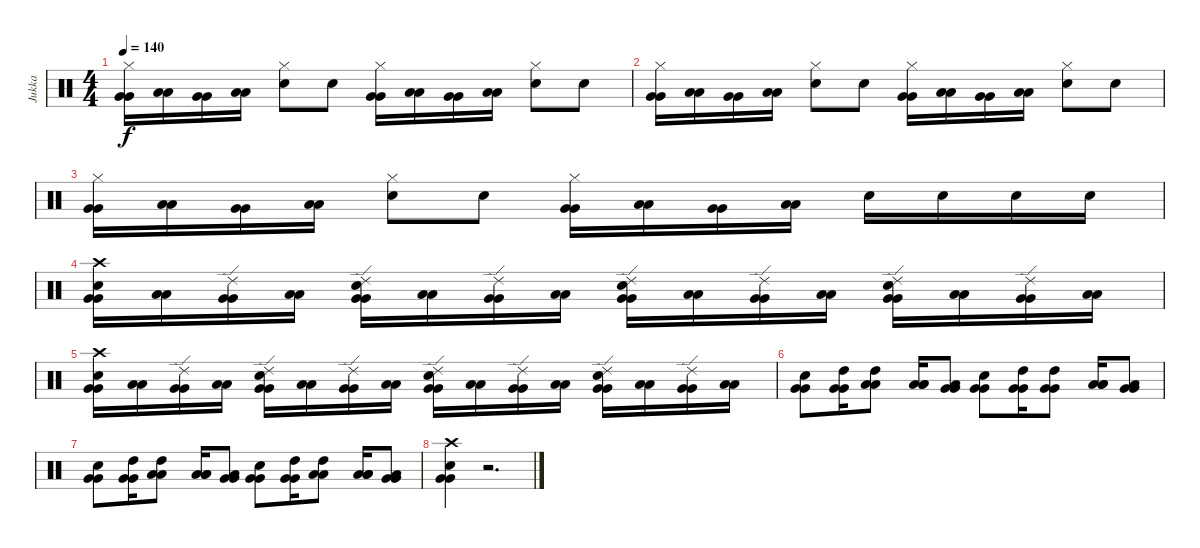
\track ("Jukka" "Jukka") {instrument percussion}
\staff {score}
\articulation defaults
\ts (4 4)
\tempo 140
\clef neutral
\ks c
("Hi-Hat (closed)" "Very Low Tom (hit)" "Very Low Tom (hit)").16{dy f} ("Low Floor Tom (hit)" "Low Floor Tom (hit)").16 ("Very Low Tom (hit)" "Very Low Tom (hit)").16 ("Low Floor Tom (hit)" "Low Floor Tom (hit)").16 ("Hi-Hat (closed)" "Electric Snare (hit)").8 "Electric Snare (hit)".8 ("Hi-Hat (closed)" "Very Low Tom (hit)" "Very Low Tom (hit)").16 ("Low Floor Tom (hit)" "Low Floor Tom (hit)").16 ("Very Low Tom (hit)" "Very Low Tom (hit)").16 ("Low Floor Tom (hit)" "Low Floor Tom (hit)").16 ("Hi-Hat (closed)" "Electric Snare (hit)").8 "Electric Snare (hit)".8 |
("Hi-Hat (closed)" "Very Low Tom (hit)" "Very Low Tom (hit)").16 ("Low Floor Tom (hit)" "Low Floor Tom (hit)").16 ("Very Low Tom (hit)" "Very Low Tom (hit)").16 ("Low Floor Tom (hit)" "Low Floor Tom (hit)").16 ("Hi-Hat (closed)" "Electric Snare (hit)").8 "Electric Snare (hit)".8 ("Hi-Hat (closed)" "Very Low Tom (hit)" "Very Low Tom (hit)").16 ("Low Floor Tom (hit)" "Low Floor Tom (hit)").16 ("Very Low Tom (hit)" "Very Low Tom (hit)").16 ("Low Floor Tom (hit)" "Low Floor Tom (hit)").16 ("Hi-Hat (closed)" "Electric Snare (hit)").8 "Electric Snare (hit)".8 |
("Hi-Hat (closed)" "Very Low Tom (hit)" "Very Low Tom (hit)").16 ("Low Floor Tom (hit)" "Low Floor Tom (hit)").16 ("Very Low Tom (hit)" "Very Low Tom (hit)").16 ("Low Floor Tom (hit)" "Low Floor Tom (hit)").16 ("Hi-Hat (closed)" "Electric Snare (hit)").8 "Electric Snare (hit)".8 ("Hi-Hat (closed)" "Very Low Tom (hit)" "Very Low Tom (hit)").16 ("Low Floor Tom (hit)" "Low Floor Tom (hit)").16 ("Very Low Tom (hit)" "Very Low Tom (hit)").16 ("Low Floor Tom (hit)" "Low Floor Tom (hit)").16 "Electric Snare (hit)".16 "Electric Snare (hit)".16 "Electric Snare (hit)".16 "Electric Snare (hit)".16 |
("Crash high (hit)" "Electric Snare (hit)" "Very Low Tom (hit)" "Very Low Tom (hit)").16 ("Low Floor Tom (hit)" "Low Floor Tom (hit)").16 ("Ride (edge) 2" "Very Low Tom (hit)" "Very Low Tom (hit)").16 ("Low Floor Tom (hit)" "Low Floor Tom (hit)").16 ("Ride (edge) 2" "Electric Snare (hit)" "Very Low Tom (hit)" "Very Low Tom (hit)").16 ("Low Floor Tom (hit)" "Low Floor Tom (hit)").16 ("Ride (edge) 2" "Very Low Tom (hit)" "Very Low Tom (hit)").16 ("Low Floor Tom (hit)" "Low Floor Tom (hit)").16 ("Ride (edge) 2" "Electric Snare (hit)" "Very Low Tom (hit)" "Very Low Tom (hit)").16 ("Low Floor Tom (hit)" "Low Floor Tom (hit)").16 ("Ride (edge) 2" "Very Low Tom (hit)" "Very Low Tom (hit)").16 ("Low Floor Tom (hit)" "Low Floor Tom (hit)").16 ("Ride (edge) 2" "Electric Snare (hit)" "Very Low Tom (hit)" "Very Low Tom (hit)").16 ("Low Floor Tom (hit)" "Low Floor Tom (hit)").16 ("Ride (edge) 2" "Very Low Tom (hit)" "Very Low Tom (hit)").16 ("Low Floor Tom (hit)" "Low Floor Tom (hit)").16 |
("Crash high (hit)" "Electric Snare (hit)" "Very Low Tom (hit)" "Very Low Tom (hit)").16 ("Low Floor Tom (hit)" "Low Floor Tom (hit)").16 ("Ride (edge) 2" "Very Low Tom (hit)" "Very Low Tom (hit)").16 ("Low Floor Tom (hit)" "Low Floor Tom (hit)").16 ("Ride (edge) 2" "Electric Snare (hit)" "Very Low Tom (hit)" "Very Low Tom (hit)").16 ("Low Floor Tom (hit)" "Low Floor Tom (hit)").16 ("Ride (edge) 2" "Very Low Tom (hit)" "Very Low Tom (hit)").16 ("Low Floor Tom (hit)" "Low Floor Tom (hit)").16 ("Ride (edge) 2" "Electric Snare (hit)" "Very Low Tom (hit)" "Very Low Tom (hit)").16 ("Low Floor Tom (hit)" "Low Floor Tom (hit)").16 ("Ride (edge) 2" "Very Low Tom (hit)" "Very Low Tom (hit)").16 ("Low Floor Tom (hit)" "Low Floor Tom (hit)").16 ("Ride (edge) 2" "Electric Snare (hit)" "Very Low Tom (hit)" "Very Low Tom (hit)").16 ("Low Floor Tom (hit)" "Low Floor Tom (hit)").16 ("Ride (edge) 2" "Very Low Tom (hit)" "Very Low Tom (hit)").16 ("Low Floor Tom (hit)" "Low Floor Tom (hit)").16 |
("Electric Snare (hit)" "Very Low Tom (hit)" "Very Low Tom (hit)").8 ("High Tom (hit)" "Very Low Tom (hit)" "Very Low Tom (hit)").16 ("High Tom (hit)" "Low Floor Tom (hit)" "Low Floor Tom (hit)").8 ("Low Tom (hit)" "Low Floor Tom (hit)" "Low Floor Tom (hit)").16 ("Low Tom (hit)" "Very Low Tom (hit)" "Very Low Tom (hit)").8 ("Electric Snare (hit)" "Very Low Tom (hit)" "Very Low Tom (hit)").8 ("High Tom (hit)" "Very Low Tom (hit)" "Very Low Tom (hit)").16 ("High Tom (hit)" "Very Low Tom (hit)" "Very Low Tom (hit)").8 ("Low Tom (hit)" "Low Floor Tom (hit)" "Low Floor Tom (hit)").16 ("Low Tom (hit)" "Very Low Tom (hit)" "Very Low Tom (hit)").8 |
("Electric Snare (hit)" "Very Low Tom (hit)" "Very Low Tom (hit)").8 ("High Tom (hit)" "Very Low Tom (hit)" "Very Low Tom (hit)").16 ("High Tom (hit)" "Low Floor Tom (hit)" "Low Floor Tom (hit)").8 ("Low Tom (hit)" "Low Floor Tom (hit)" "Low Floor Tom (hit)").16 ("Low Tom (hit)" "Very Low Tom (hit)" "Very Low Tom (hit)").8 ("Electric Snare (hit)" "Very Low Tom (hit)" "Very Low Tom (hit)").8 ("High Tom (hit)" "Very Low Tom (hit)" "Very Low Tom (hit)").16 ("High Tom (hit)" "Low Floor Tom (hit)" "Low Floor Tom (hit)").8 ("Low Tom (hit)" "Low Floor Tom (hit)" "Low Floor Tom (hit)").16 ("Low Tom (hit)" "Very Low Tom (hit)" "Very Low Tom (hit)").8 |
("Crash high (hit)" "Electric Snare (hit)" "Very Low Tom (hit)" "Very Low Tom (hit)").4 r.2{d}
